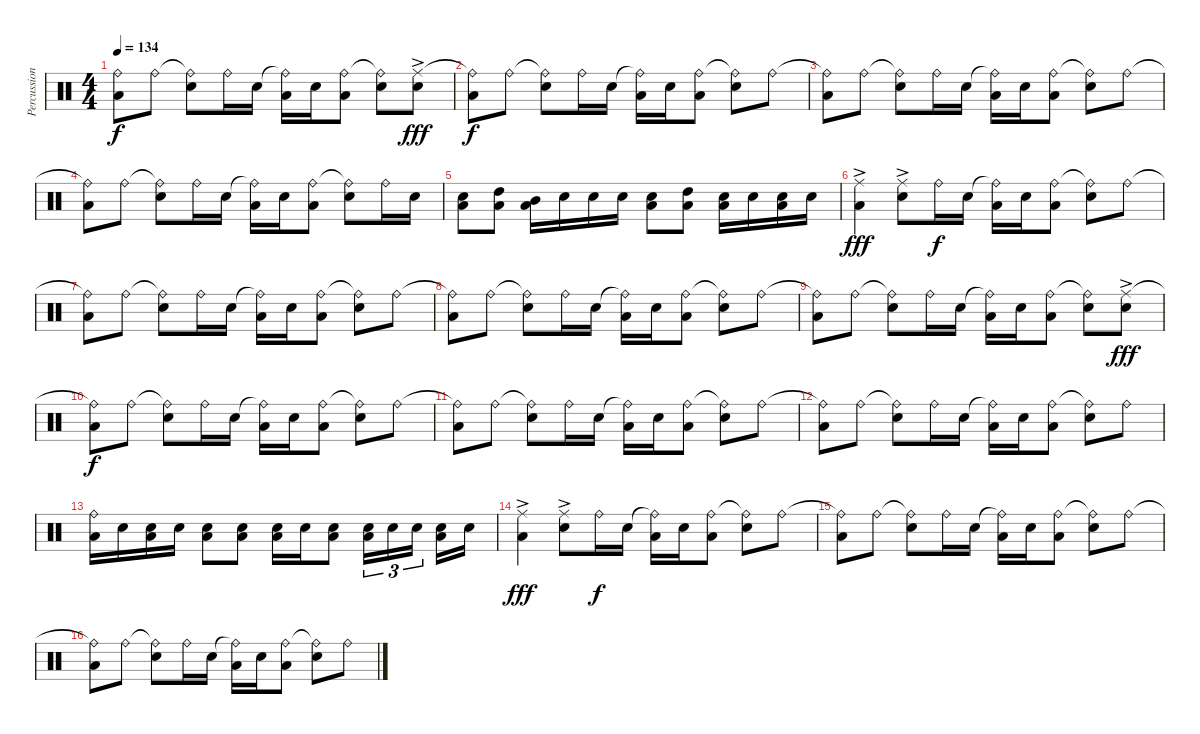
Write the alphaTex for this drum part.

\track ("Percussion" "Percussion") {instrument percussion}
\staff {score}
\articulation defaults
\ts (4 4)
\tempo 134
\clef neutral
\ks c
("Ride (bell)"{t} "Low Floor Tom (hit)").8{dy f} "Ride (bell)".8 ("Ride (bell)"{t} "Snare (hit) 2").8 "Ride (bell)".16 "Snare (hit) 2".16 ("Ride (bell)"{t} "Low Floor Tom (hit)").16 "Snare (hit) 2".16 ("Ride (bell)" "Low Floor Tom (hit)").8 ("Ride (bell)"{t} "Snare (hit) 2").8 ("Ride (middle)"{ac} "Snare (hit) 2").8{dy fff} |
("Ride (bell)"{t} "Low Floor Tom (hit)").8{dy f} "Ride (bell)".8 ("Ride (bell)"{t} "Snare (hit) 2").8 "Ride (bell)".16 "Snare (hit) 2".16 ("Ride (bell)"{t} "Low Floor Tom (hit)").16 "Snare (hit) 2".16 ("Ride (bell)" "Low Floor Tom (hit)").8 ("Ride (bell)"{t} "Snare (hit) 2").8 "Ride (bell)".8 |
("Ride (bell)"{t} "Low Floor Tom (hit)").8 "Ride (bell)".8 ("Ride (bell)"{t} "Snare (hit) 2").8 "Ride (bell)".16 "Snare (hit) 2".16 ("Ride (bell)"{t} "Low Floor Tom (hit)").16 "Snare (hit) 2".16 ("Ride (bell)" "Low Floor Tom (hit)").8 ("Ride (bell)"{t} "Snare (hit) 2").8 "Ride (bell)".8 |
("Ride (bell)"{t} "Low Floor Tom (hit)").8 "Ride (bell)".8 ("Ride (bell)"{t} "Snare (hit) 2").8 "Ride (bell)".16 "Snare (hit) 2".16 ("Ride (bell)"{t} "Low Floor Tom (hit)").16 "Snare (hit) 2".16 ("Ride (bell)" "Low Floor Tom (hit)").8 ("Ride (bell)"{t} "Snare (hit) 2").8 "Ride (bell)".16 "Snare (hit) 2".16 |
("Snare (hit) 2" "Low Floor Tom (hit)").8 ("High Tom (hit)" "Low Floor Tom (hit)").8 ("Mid Tom (hit)" "Low Floor Tom (hit)").16 "Snare (hit) 2".16 "Snare (hit) 2".16 "Snare (hit) 2".16 ("Snare (hit) 2" "Low Floor Tom (hit)").8 ("High Tom (hit)" "Low Floor Tom (hit)").8 ("Snare (hit) 2" "Low Floor Tom (hit)").16 "Snare (hit) 2".16 ("Snare (hit) 2" "Low Floor Tom (hit)").16 "Snare (hit) 2".16 |
("Ride (middle)"{ac} "Low Floor Tom (hit)").4{dy fff} ("Ride (middle)"{ac} "Snare (hit) 2").8 "Ride (bell)".16{dy f} "Snare (hit) 2".16 ("Ride (bell)"{t} "Low Floor Tom (hit)").16 "Snare (hit) 2".16 ("Ride (bell)" "Low Floor Tom (hit)").8 ("Ride (bell)"{t} "Snare (hit) 2").8 "Ride (bell)".8 |
("Ride (bell)"{t} "Low Floor Tom (hit)").8 "Ride (bell)".8 ("Ride (bell)"{t} "Snare (hit) 2").8 "Ride (bell)".16 "Snare (hit) 2".16 ("Ride (bell)"{t} "Low Floor Tom (hit)").16 "Snare (hit) 2".16 ("Ride (bell)" "Low Floor Tom (hit)").8 ("Ride (bell)"{t} "Snare (hit) 2").8 "Ride (bell)".8 |
("Ride (bell)"{t} "Low Floor Tom (hit)").8 "Ride (bell)".8 ("Ride (bell)"{t} "Snare (hit) 2").8 "Ride (bell)".16 "Snare (hit) 2".16 ("Ride (bell)"{t} "Low Floor Tom (hit)").16 "Snare (hit) 2".16 ("Ride (bell)" "Low Floor Tom (hit)").8 ("Ride (bell)"{t} "Snare (hit) 2").8 "Ride (bell)".8 |
("Ride (bell)"{t} "Low Floor Tom (hit)").8 "Ride (bell)".8 ("Ride (bell)"{t} "Snare (hit) 2").8 "Ride (bell)".16 "Snare (hit) 2".16 ("Ride (bell)"{t} "Low Floor Tom (hit)").16 "Snare (hit) 2".16 ("Ride (bell)" "Low Floor Tom (hit)").8 ("Ride (bell)"{t} "Snare (hit) 2").8 ("Ride (middle)"{ac} "Snare (hit) 2").8{dy fff} |
("Ride (bell)"{t} "Low Floor Tom (hit)").8{dy f} "Ride (bell)".8 ("Ride (bell)"{t} "Snare (hit) 2").8 "Ride (bell)".16 "Snare (hit) 2".16 ("Ride (bell)"{t} "Low Floor Tom (hit)").16 "Snare (hit) 2".16 ("Ride (bell)" "Low Floor Tom (hit)").8 ("Ride (bell)"{t} "Snare (hit) 2").8 "Ride (bell)".8 |
("Ride (bell)"{t} "Low Floor Tom (hit)").8 "Ride (bell)".8 ("Ride (bell)"{t} "Snare (hit) 2").8 "Ride (bell)".16 "Snare (hit) 2".16 ("Ride (bell)"{t} "Low Floor Tom (hit)").16 "Snare (hit) 2".16 ("Ride (bell)" "Low Floor Tom (hit)").8 ("Ride (bell)"{t} "Snare (hit) 2").8 "Ride (bell)".8 |
("Ride (bell)"{t} "Low Floor Tom (hit)").8 "Ride (bell)".8 ("Ride (bell)"{t} "Snare (hit) 2").8 "Ride (bell)".16 "Snare (hit) 2".16 ("Ride (bell)"{t} "Low Floor Tom (hit)").16 "Snare (hit) 2".16 ("Ride (bell)" "Low Floor Tom (hit)").8 ("Ride (bell)"{t} "Snare (hit) 2").8 "Ride (bell)".8 |
("Ride (bell)" "Low Floor Tom (hit)").16 "Snare (hit) 2".16 ("Snare (hit) 2" "Low Floor Tom (hit)").16 "Snare (hit) 2".16 ("Snare (hit) 2" "Low Floor Tom (hit)").8 ("Snare (hit) 2" "Low Floor Tom (hit)").8 ("Snare (hit) 2" "Low Floor Tom (hit)").16 "Snare (hit) 2".16 ("Snare (hit) 2" "Low Floor Tom (hit)").8 ("Snare (hit) 2" "Low Floor Tom (hit)").16{tu (3 2)} "Snare (hit) 2".16{tu (3 2)} "Snare (hit) 2".16{tu (3 2)} ("Snare (hit) 2" "Low Floor Tom (hit)").16 "Snare (hit) 2".16 |
("Ride (middle)"{ac} "Low Floor Tom (hit)").4{dy fff} ("Ride (middle)"{ac} "Snare (hit) 2").8 "Ride (bell)".16{dy f} "Snare (hit) 2".16 ("Ride (bell)"{t} "Low Floor Tom (hit)").16 "Snare (hit) 2".16 ("Ride (bell)" "Low Floor Tom (hit)").8 ("Ride (bell)"{t} "Snare (hit) 2").8 "Ride (bell)".8 |
("Ride (bell)"{t} "Low Floor Tom (hit)").8 "Ride (bell)".8 ("Ride (bell)"{t} "Snare (hit) 2").8 "Ride (bell)".16 "Snare (hit) 2".16 ("Ride (bell)"{t} "Low Floor Tom (hit)").16 "Snare (hit) 2".16 ("Ride (bell)" "Low Floor Tom (hit)").8 ("Ride (bell)"{t} "Snare (hit) 2").8 "Ride (bell)".8 |
("Ride (bell)"{t} "Low Floor Tom (hit)").8 "Ride (bell)".8 ("Ride (bell)"{t} "Snare (hit) 2").8 "Ride (bell)".16 "Snare (hit) 2".16 ("Ride (bell)"{t} "Low Floor Tom (hit)").16 "Snare (hit) 2".16 ("Ride (bell)" "Low Floor Tom (hit)").8 ("Ride (bell)"{t} "Snare (hit) 2").8 "Ride (bell)".8
